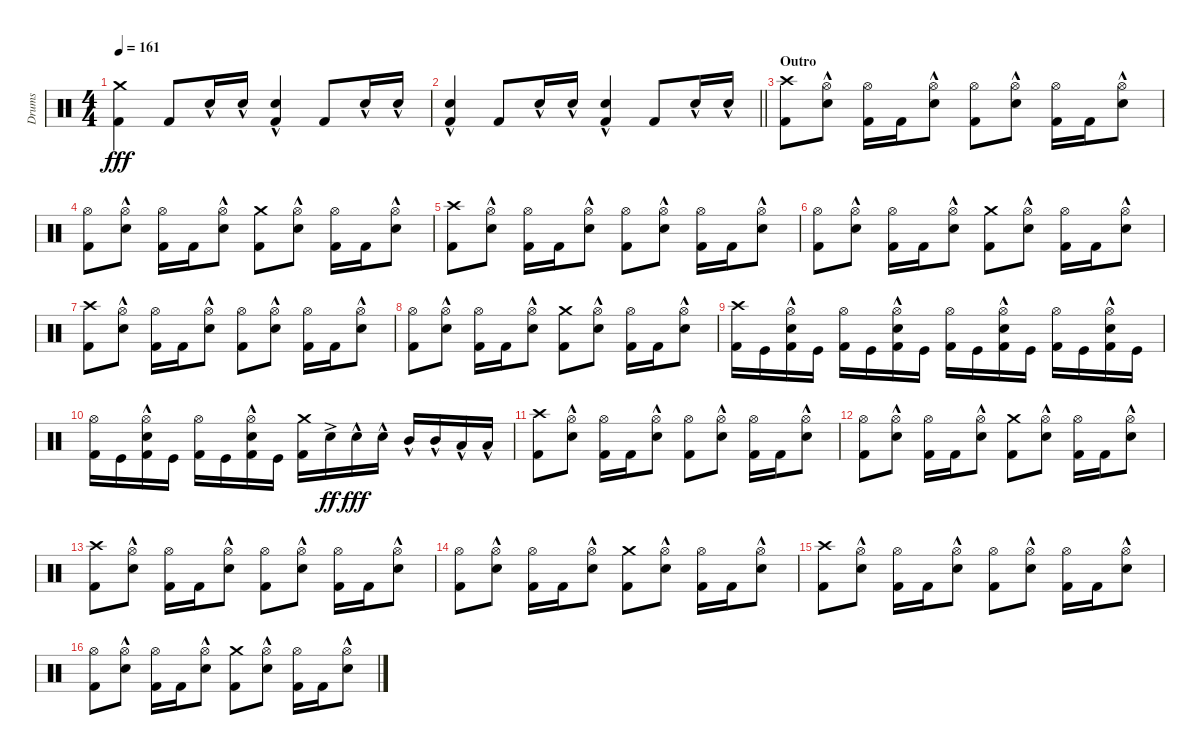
\track ("Drums" "Drums") {instrument percussion}
\staff {score}
\articulation defaults
\ts (4 4)
\tempo 161
\clef neutral
\ks c
("Crash medium (hit)" "Kick (hit) 2").4{dy fff} "Kick (hit) 2".8 "Snare (hit) 2"{hac}.16 "Snare (hit) 2"{hac}.16 ("Snare (hit) 2"{hac} "Kick (hit) 2").4 "Kick (hit) 2".8 "Snare (hit) 2"{hac}.16 "Snare (hit) 2"{hac}.16 |
\barLineRight lightlight
("Snare (hit) 2"{hac} "Kick (hit) 2").4 "Kick (hit) 2".8 "Snare (hit) 2"{hac}.16 "Snare (hit) 2"{hac}.16 ("Snare (hit) 2"{hac} "Kick (hit) 2").4 "Kick (hit) 2".8 "Snare (hit) 2"{hac}.16 "Snare (hit) 2"{hac}.16 |
\section ("" "Outro")
("Crash high (hit)" "Kick (hit) 2").8 ("Hi-Hat (open)" "Snare (hit) 2"{hac}).8 ("Hi-Hat (open)" "Kick (hit) 2").16 "Kick (hit) 2".16 ("Hi-Hat (open)" "Snare (hit) 2"{hac}).8 ("Hi-Hat (open)" "Kick (hit) 2").8 ("Hi-Hat (open)" "Snare (hit) 2"{hac}).8 ("Hi-Hat (open)" "Kick (hit) 2").16 "Kick (hit) 2".16 ("Hi-Hat (open)" "Snare (hit) 2"{hac}).8 |
("Hi-Hat (open)" "Kick (hit) 2").8 ("Hi-Hat (open)" "Snare (hit) 2"{hac}).8 ("Hi-Hat (open)" "Kick (hit) 2").16 "Kick (hit) 2".16 ("Hi-Hat (open)" "Snare (hit) 2"{hac}).8 ("Crash medium (hit)" "Kick (hit) 2").8 ("Hi-Hat (open)" "Snare (hit) 2"{hac}).8 ("Hi-Hat (open)" "Kick (hit) 2").16 "Kick (hit) 2".16 ("Hi-Hat (open)" "Snare (hit) 2"{hac}).8 |
("Crash high (hit)" "Kick (hit) 2").8 ("Hi-Hat (open)" "Snare (hit) 2"{hac}).8 ("Hi-Hat (open)" "Kick (hit) 2").16 "Kick (hit) 2".16 ("Hi-Hat (open)" "Snare (hit) 2"{hac}).8 ("Hi-Hat (open)" "Kick (hit) 2").8 ("Hi-Hat (open)" "Snare (hit) 2"{hac}).8 ("Hi-Hat (open)" "Kick (hit) 2").16 "Kick (hit) 2".16 ("Hi-Hat (open)" "Snare (hit) 2"{hac}).8 |
("Hi-Hat (open)" "Kick (hit) 2").8 ("Hi-Hat (open)" "Snare (hit) 2"{hac}).8 ("Hi-Hat (open)" "Kick (hit) 2").16 "Kick (hit) 2".16 ("Hi-Hat (open)" "Snare (hit) 2"{hac}).8 ("Crash medium (hit)" "Kick (hit) 2").8 ("Hi-Hat (open)" "Snare (hit) 2"{hac}).8 ("Hi-Hat (open)" "Kick (hit) 2").16 "Kick (hit) 2".16 ("Hi-Hat (open)" "Snare (hit) 2"{hac}).8 |
("Crash high (hit)" "Kick (hit) 2").8 ("Hi-Hat (open)" "Snare (hit) 2"{hac}).8 ("Hi-Hat (open)" "Kick (hit) 2").16 "Kick (hit) 2".16 ("Hi-Hat (open)" "Snare (hit) 2"{hac}).8 ("Hi-Hat (open)" "Kick (hit) 2").8 ("Hi-Hat (open)" "Snare (hit) 2"{hac}).8 ("Hi-Hat (open)" "Kick (hit) 2").16 "Kick (hit) 2".16 ("Hi-Hat (open)" "Snare (hit) 2"{hac}).8 |
("Hi-Hat (open)" "Kick (hit) 2").8 ("Hi-Hat (open)" "Snare (hit) 2"{hac}).8 ("Hi-Hat (open)" "Kick (hit) 2").16 "Kick (hit) 2".16 ("Hi-Hat (open)" "Snare (hit) 2"{hac}).8 ("Crash medium (hit)" "Kick (hit) 2").8 ("Hi-Hat (open)" "Snare (hit) 2"{hac}).8 ("Hi-Hat (open)" "Kick (hit) 2").16 "Kick (hit) 2".16 ("Hi-Hat (open)" "Snare (hit) 2"{hac}).8 |
("Crash high (hit)" "Kick (hit) 2").16 "Kick (hit)".16 ("Hi-Hat (open)" "Snare (hit) 2"{hac} "Kick (hit) 2").16 "Kick (hit)".16 ("Hi-Hat (open)" "Kick (hit) 2").16 "Kick (hit)".16 ("Hi-Hat (open)" "Snare (hit) 2"{hac} "Kick (hit) 2").16 "Kick (hit)".16 ("Hi-Hat (open)" "Kick (hit) 2").16 "Kick (hit)".16 ("Hi-Hat (open)" "Snare (hit) 2"{hac} "Kick (hit) 2").16 "Kick (hit)".16 ("Hi-Hat (open)" "Kick (hit) 2").16 "Kick (hit)".16 ("Hi-Hat (open)" "Snare (hit) 2"{hac} "Kick (hit) 2").16 "Kick (hit)".16 |
("Hi-Hat (open)" "Kick (hit) 2").16 "Kick (hit)".16 ("Hi-Hat (open)" "Snare (hit) 2"{hac} "Kick (hit) 2").16 "Kick (hit)".16 ("Hi-Hat (open)" "Kick (hit) 2").16 "Kick (hit)".16 ("Hi-Hat (open)" "Snare (hit) 2"{hac} "Kick (hit) 2").16 "Kick (hit)".16 ("Crash medium (hit)" "Kick (hit) 2").16 "Snare (hit) 2"{ac}.16{dy ff} "Snare (hit) 2"{hac}.16{dy fff} "Snare (hit) 2"{hac}.16 "Mid Tom (hit)"{hac}.16 "Mid Tom (hit)"{hac}.16 "Low Tom (hit)"{hac}.16 "Low Tom (hit)"{hac}.16 |
("Crash high (hit)" "Kick (hit) 2").8 ("Hi-Hat (open)" "Snare (hit) 2"{hac}).8 ("Hi-Hat (open)" "Kick (hit) 2").16 "Kick (hit) 2".16 ("Hi-Hat (open)" "Snare (hit) 2"{hac}).8 ("Hi-Hat (open)" "Kick (hit) 2").8 ("Hi-Hat (open)" "Snare (hit) 2"{hac}).8 ("Hi-Hat (open)" "Kick (hit) 2").16 "Kick (hit) 2".16 ("Hi-Hat (open)" "Snare (hit) 2"{hac}).8 |
("Hi-Hat (open)" "Kick (hit) 2").8 ("Hi-Hat (open)" "Snare (hit) 2"{hac}).8 ("Hi-Hat (open)" "Kick (hit) 2").16 "Kick (hit) 2".16 ("Hi-Hat (open)" "Snare (hit) 2"{hac}).8 ("Crash medium (hit)" "Kick (hit) 2").8 ("Hi-Hat (open)" "Snare (hit) 2"{hac}).8 ("Hi-Hat (open)" "Kick (hit) 2").16 "Kick (hit) 2".16 ("Hi-Hat (open)" "Snare (hit) 2"{hac}).8 |
("Crash high (hit)" "Kick (hit) 2").8 ("Hi-Hat (open)" "Snare (hit) 2"{hac}).8 ("Hi-Hat (open)" "Kick (hit) 2").16 "Kick (hit) 2".16 ("Hi-Hat (open)" "Snare (hit) 2"{hac}).8 ("Hi-Hat (open)" "Kick (hit) 2").8 ("Hi-Hat (open)" "Snare (hit) 2"{hac}).8 ("Hi-Hat (open)" "Kick (hit) 2").16 "Kick (hit) 2".16 ("Hi-Hat (open)" "Snare (hit) 2"{hac}).8 |
("Hi-Hat (open)" "Kick (hit) 2").8 ("Hi-Hat (open)" "Snare (hit) 2"{hac}).8 ("Hi-Hat (open)" "Kick (hit) 2").16 "Kick (hit) 2".16 ("Hi-Hat (open)" "Snare (hit) 2"{hac}).8 ("Crash medium (hit)" "Kick (hit) 2").8 ("Hi-Hat (open)" "Snare (hit) 2"{hac}).8 ("Hi-Hat (open)" "Kick (hit) 2").16 "Kick (hit) 2".16 ("Hi-Hat (open)" "Snare (hit) 2"{hac}).8 |
("Crash high (hit)" "Kick (hit) 2").8 ("Hi-Hat (open)" "Snare (hit) 2"{hac}).8 ("Hi-Hat (open)" "Kick (hit) 2").16 "Kick (hit) 2".16 ("Hi-Hat (open)" "Snare (hit) 2"{hac}).8 ("Hi-Hat (open)" "Kick (hit) 2").8 ("Hi-Hat (open)" "Snare (hit) 2"{hac}).8 ("Hi-Hat (open)" "Kick (hit) 2").16 "Kick (hit) 2".16 ("Hi-Hat (open)" "Snare (hit) 2"{hac}).8 |
("Hi-Hat (open)" "Kick (hit) 2").8 ("Hi-Hat (open)" "Snare (hit) 2"{hac}).8 ("Hi-Hat (open)" "Kick (hit) 2").16 "Kick (hit) 2".16 ("Hi-Hat (open)" "Snare (hit) 2"{hac}).8 ("Crash medium (hit)" "Kick (hit) 2").8 ("Hi-Hat (open)" "Snare (hit) 2"{hac}).8 ("Hi-Hat (open)" "Kick (hit) 2").16 "Kick (hit) 2".16 ("Hi-Hat (open)" "Snare (hit) 2"{hac}).8
